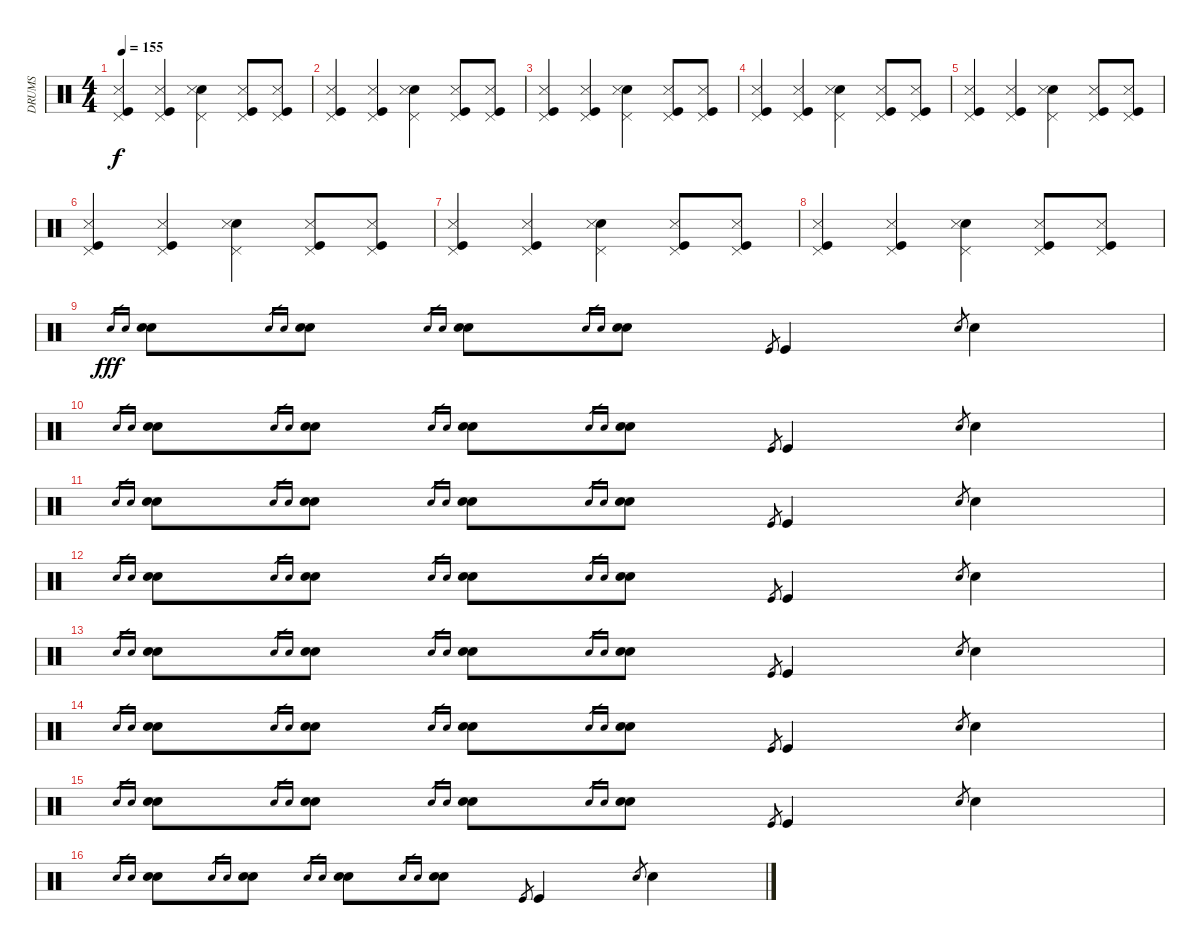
\track ("DRUMS" "DRUMS") {instrument percussion}
\staff {score}
\articulation defaults
\ts (4 4)
\tempo 155
\clef neutral
\ks c
("Kick (hit)" "Snare (side stick) 3" "Pedal Hi-Hat (hit)").4{dy f} ("Kick (hit)" "Snare (side stick) 3" "Pedal Hi-Hat (hit)").4 ("Snare (hit) 2" "Snare (side stick) 3" "Pedal Hi-Hat (hit)").4 ("Kick (hit)" "Snare (side stick) 3" "Pedal Hi-Hat (hit)").8 ("Kick (hit)" "Snare (side stick) 3" "Pedal Hi-Hat (hit)").8 |
("Kick (hit)" "Snare (side stick) 3" "Pedal Hi-Hat (hit)").4 ("Kick (hit)" "Snare (side stick) 3" "Pedal Hi-Hat (hit)").4 ("Snare (hit) 2" "Snare (side stick) 3" "Pedal Hi-Hat (hit)").4 ("Kick (hit)" "Snare (side stick) 3" "Pedal Hi-Hat (hit)").8 ("Kick (hit)" "Snare (side stick) 3" "Pedal Hi-Hat (hit)").8 |
("Kick (hit)" "Snare (side stick) 3" "Pedal Hi-Hat (hit)").4 ("Kick (hit)" "Snare (side stick) 3" "Pedal Hi-Hat (hit)").4 ("Snare (hit) 2" "Snare (side stick) 3" "Pedal Hi-Hat (hit)").4 ("Kick (hit)" "Snare (side stick) 3" "Pedal Hi-Hat (hit)").8 ("Kick (hit)" "Snare (side stick) 3" "Pedal Hi-Hat (hit)").8 |
("Kick (hit)" "Snare (side stick) 3" "Pedal Hi-Hat (hit)").4 ("Kick (hit)" "Snare (side stick) 3" "Pedal Hi-Hat (hit)").4 ("Snare (hit) 2" "Snare (side stick) 3" "Pedal Hi-Hat (hit)").4 ("Kick (hit)" "Snare (side stick) 3" "Pedal Hi-Hat (hit)").8 ("Kick (hit)" "Snare (side stick) 3" "Pedal Hi-Hat (hit)").8 |
("Kick (hit)" "Snare (side stick) 3" "Pedal Hi-Hat (hit)").4 ("Kick (hit)" "Snare (side stick) 3" "Pedal Hi-Hat (hit)").4 ("Snare (hit) 2" "Snare (side stick) 3" "Pedal Hi-Hat (hit)").4 ("Kick (hit)" "Snare (side stick) 3" "Pedal Hi-Hat (hit)").8 ("Kick (hit)" "Snare (side stick) 3" "Pedal Hi-Hat (hit)").8 |
("Kick (hit)" "Snare (side stick) 3" "Pedal Hi-Hat (hit)").4 ("Kick (hit)" "Snare (side stick) 3" "Pedal Hi-Hat (hit)").4 ("Snare (hit) 2" "Snare (side stick) 3" "Pedal Hi-Hat (hit)").4 ("Kick (hit)" "Snare (side stick) 3" "Pedal Hi-Hat (hit)").8 ("Kick (hit)" "Snare (side stick) 3" "Pedal Hi-Hat (hit)").8 |
("Kick (hit)" "Snare (side stick) 3" "Pedal Hi-Hat (hit)").4 ("Kick (hit)" "Snare (side stick) 3" "Pedal Hi-Hat (hit)").4 ("Snare (hit) 2" "Snare (side stick) 3" "Pedal Hi-Hat (hit)").4 ("Kick (hit)" "Snare (side stick) 3" "Pedal Hi-Hat (hit)").8 ("Kick (hit)" "Snare (side stick) 3" "Pedal Hi-Hat (hit)").8 |
("Kick (hit)" "Snare (side stick) 3" "Pedal Hi-Hat (hit)").4{balance 2} ("Kick (hit)" "Snare (side stick) 3" "Pedal Hi-Hat (hit)").4 ("Snare (hit) 2" "Snare (side stick) 3" "Pedal Hi-Hat (hit)").4 ("Kick (hit)" "Snare (side stick) 3" "Pedal Hi-Hat (hit)").8 ("Kick (hit)" "Snare (side stick) 3" "Pedal Hi-Hat (hit)").8 |
"Snare (hit) 2".16{gr dy fff} "Snare (hit) 2".16{gr} ("Snare (hit) 2" "Snare (hit) 2").8{balance 4} "Snare (hit) 2".16{gr} "Snare (hit) 2".16{gr} ("Snare (hit) 2" "Snare (hit) 2").8 "Snare (hit) 2".16{gr} "Snare (hit) 2".16{gr} ("Snare (hit) 2" "Snare (hit) 2").8 "Snare (hit) 2".16{gr} "Snare (hit) 2".16{gr} ("Snare (hit) 2" "Snare (hit) 2").8 "Kick (hit)".8{gr} "Kick (hit)".4 "Snare (hit) 2".8{gr} "Snare (hit) 2".4 |
"Snare (hit) 2".16{gr} "Snare (hit) 2".16{gr} ("Snare (hit) 2" "Snare (hit) 2").8 "Snare (hit) 2".16{gr} "Snare (hit) 2".16{gr} ("Snare (hit) 2" "Snare (hit) 2").8 "Snare (hit) 2".16{gr} "Snare (hit) 2".16{gr} ("Snare (hit) 2" "Snare (hit) 2").8 "Snare (hit) 2".16{gr} "Snare (hit) 2".16{gr} ("Snare (hit) 2" "Snare (hit) 2").8 "Kick (hit)".8{gr} "Kick (hit)".4 "Snare (hit) 2".8{gr} "Snare (hit) 2".4 |
"Snare (hit) 2".16{gr} "Snare (hit) 2".16{gr} ("Snare (hit) 2" "Snare (hit) 2").8{balance 5} "Snare (hit) 2".16{gr} "Snare (hit) 2".16{gr} ("Snare (hit) 2" "Snare (hit) 2").8 "Snare (hit) 2".16{gr} "Snare (hit) 2".16{gr} ("Snare (hit) 2" "Snare (hit) 2").8 "Snare (hit) 2".16{gr} "Snare (hit) 2".16{gr} ("Snare (hit) 2" "Snare (hit) 2").8 "Kick (hit)".8{gr} "Kick (hit)".4 "Snare (hit) 2".8{gr} "Snare (hit) 2".4 |
"Snare (hit) 2".16{gr} "Snare (hit) 2".16{gr} ("Snare (hit) 2" "Snare (hit) 2").8 "Snare (hit) 2".16{gr} "Snare (hit) 2".16{gr} ("Snare (hit) 2" "Snare (hit) 2").8 "Snare (hit) 2".16{gr} "Snare (hit) 2".16{gr} ("Snare (hit) 2" "Snare (hit) 2").8 "Snare (hit) 2".16{gr} "Snare (hit) 2".16{gr} ("Snare (hit) 2" "Snare (hit) 2").8 "Kick (hit)".8{gr} "Kick (hit)".4 "Snare (hit) 2".8{gr} "Snare (hit) 2".4 |
"Snare (hit) 2".16{gr} "Snare (hit) 2".16{gr} ("Snare (hit) 2" "Snare (hit) 2").8 "Snare (hit) 2".16{gr} "Snare (hit) 2".16{gr} ("Snare (hit) 2" "Snare (hit) 2").8 "Snare (hit) 2".16{gr} "Snare (hit) 2".16{gr} ("Snare (hit) 2" "Snare (hit) 2").8 "Snare (hit) 2".16{gr} "Snare (hit) 2".16{gr} ("Snare (hit) 2" "Snare (hit) 2").8 "Kick (hit)".8{gr} "Kick (hit)".4 "Snare (hit) 2".8{gr} "Snare (hit) 2".4 |
"Snare (hit) 2".16{gr} "Snare (hit) 2".16{gr} ("Snare (hit) 2" "Snare (hit) 2").8 "Snare (hit) 2".16{gr} "Snare (hit) 2".16{gr} ("Snare (hit) 2" "Snare (hit) 2").8 "Snare (hit) 2".16{gr} "Snare (hit) 2".16{gr} ("Snare (hit) 2" "Snare (hit) 2").8 "Snare (hit) 2".16{gr} "Snare (hit) 2".16{gr} ("Snare (hit) 2" "Snare (hit) 2").8 "Kick (hit)".8{gr} "Kick (hit)".4 "Snare (hit) 2".8{gr} "Snare (hit) 2".4 |
"Snare (hit) 2".16{gr} "Snare (hit) 2".16{gr} ("Snare (hit) 2" "Snare (hit) 2").8{balance 8} "Snare (hit) 2".16{gr} "Snare (hit) 2".16{gr} ("Snare (hit) 2" "Snare (hit) 2").8 "Snare (hit) 2".16{gr} "Snare (hit) 2".16{gr} ("Snare (hit) 2" "Snare (hit) 2").8 "Snare (hit) 2".16{gr} "Snare (hit) 2".16{gr} ("Snare (hit) 2" "Snare (hit) 2").8 "Kick (hit)".8{gr} "Kick (hit)".4 "Snare (hit) 2".8{gr} "Snare (hit) 2".4 |
"Snare (hit) 2".16{gr} "Snare (hit) 2".16{gr} ("Snare (hit) 2" "Snare (hit) 2").8 "Snare (hit) 2".16{gr} "Snare (hit) 2".16{gr} ("Snare (hit) 2" "Snare (hit) 2").8 "Snare (hit) 2".16{gr} "Snare (hit) 2".16{gr} ("Snare (hit) 2" "Snare (hit) 2").8 "Snare (hit) 2".16{gr} "Snare (hit) 2".16{gr} ("Snare (hit) 2" "Snare (hit) 2").8 "Kick (hit)".8{gr} "Kick (hit)".4 "Snare (hit) 2".8{gr} "Snare (hit) 2".4
